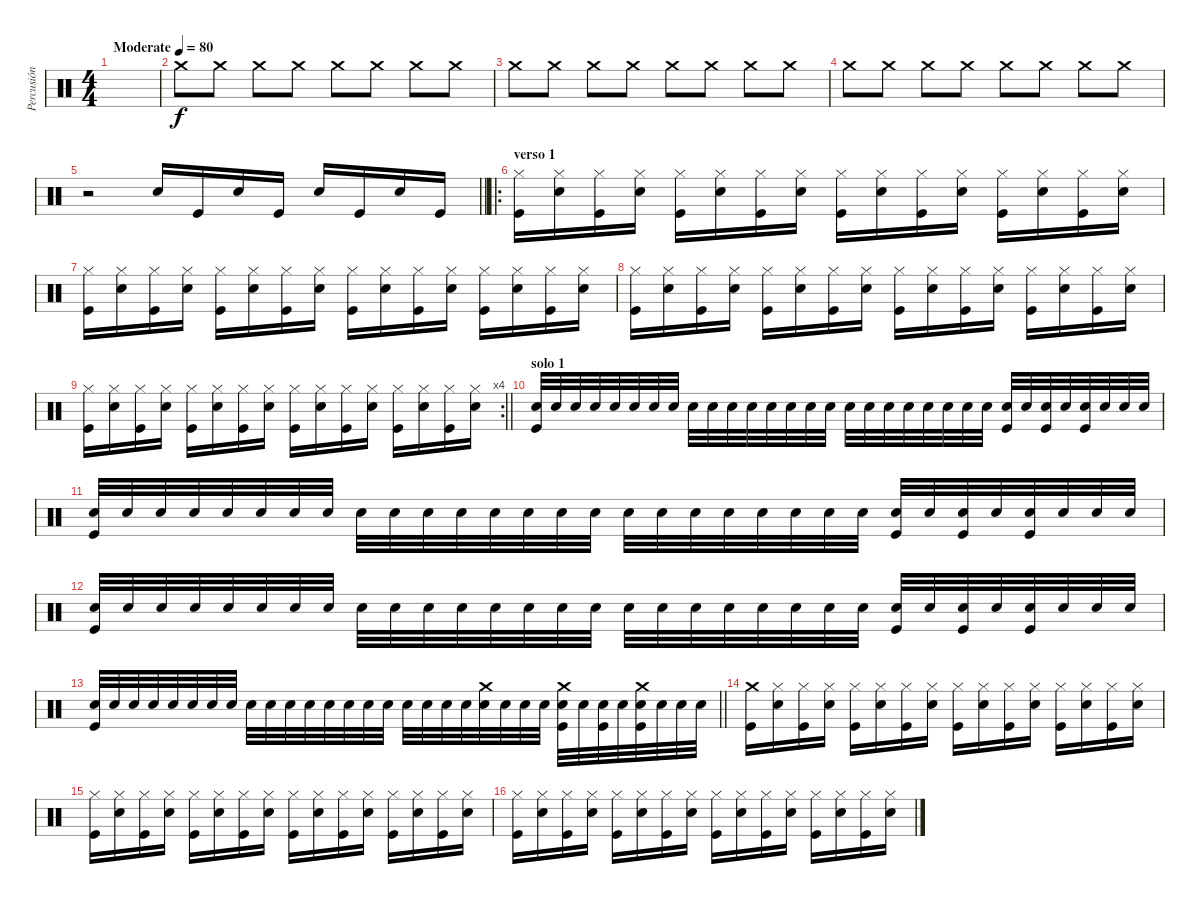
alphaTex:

\track ("Percusión" "Percusión") {instrument percussion}
\staff {score}
\articulation defaults
\ts (4 4)
\tempo (80 "Moderate")
\clef neutral
\ks c
|
"Crash medium (hit)".8 "Crash medium (hit)".8 "Crash medium (hit)".8 "Crash medium (hit)".8 "Crash medium (hit)".8 "Crash medium (hit)".8 "Crash medium (hit)".8 "Crash medium (hit)".8 |
"Crash medium (hit)".8 "Crash medium (hit)".8 "Crash medium (hit)".8 "Crash medium (hit)".8 "Crash medium (hit)".8 "Crash medium (hit)".8 "Crash medium (hit)".8 "Crash medium (hit)".8 |
"Crash medium (hit)".8 "Crash medium (hit)".8 "Crash medium (hit)".8 "Crash medium (hit)".8 "Crash medium (hit)".8 "Crash medium (hit)".8 "Crash medium (hit)".8 "Crash medium (hit)".8 |
\barLineRight lightlight
r.2 "Electric Snare (hit)".16 "Kick (hit)".16 "Electric Snare (hit)".16 "Kick (hit)".16 "Electric Snare (hit)".16 "Kick (hit)".16 "Electric Snare (hit)".16 "Kick (hit)".16 |
\ro
\section ("" "verso 1")
("Hi-Hat (closed)" "Kick (hit)").16 ("Hi-Hat (closed)" "Electric Snare (hit)").16 ("Hi-Hat (closed)" "Kick (hit)").16 ("Hi-Hat (closed)" "Electric Snare (hit)").16 ("Hi-Hat (closed)" "Kick (hit)").16 ("Hi-Hat (closed)" "Electric Snare (hit)").16 ("Hi-Hat (closed)" "Kick (hit)").16 ("Hi-Hat (closed)" "Electric Snare (hit)").16 ("Hi-Hat (closed)" "Kick (hit)").16 ("Hi-Hat (closed)" "Electric Snare (hit)").16 ("Hi-Hat (closed)" "Kick (hit)").16 ("Hi-Hat (closed)" "Electric Snare (hit)").16 ("Hi-Hat (closed)" "Kick (hit)").16 ("Hi-Hat (closed)" "Electric Snare (hit)").16 ("Hi-Hat (closed)" "Kick (hit)").16 ("Hi-Hat (closed)" "Electric Snare (hit)").16 |
("Hi-Hat (closed)" "Kick (hit)").16 ("Hi-Hat (closed)" "Electric Snare (hit)").16 ("Hi-Hat (closed)" "Kick (hit)").16 ("Hi-Hat (closed)" "Electric Snare (hit)").16 ("Hi-Hat (closed)" "Kick (hit)").16 ("Hi-Hat (closed)" "Electric Snare (hit)").16 ("Hi-Hat (closed)" "Kick (hit)").16 ("Hi-Hat (closed)" "Electric Snare (hit)").16 ("Hi-Hat (closed)" "Kick (hit)").16 ("Hi-Hat (closed)" "Electric Snare (hit)").16 ("Hi-Hat (closed)" "Kick (hit)").16 ("Hi-Hat (closed)" "Electric Snare (hit)").16 ("Hi-Hat (closed)" "Kick (hit)").16 ("Hi-Hat (closed)" "Electric Snare (hit)").16 ("Hi-Hat (closed)" "Kick (hit)").16 ("Hi-Hat (closed)" "Electric Snare (hit)").16 |
("Hi-Hat (closed)" "Kick (hit)").16 ("Hi-Hat (closed)" "Electric Snare (hit)").16 ("Hi-Hat (closed)" "Kick (hit)").16 ("Hi-Hat (closed)" "Electric Snare (hit)").16 ("Hi-Hat (closed)" "Kick (hit)").16 ("Hi-Hat (closed)" "Electric Snare (hit)").16 ("Hi-Hat (closed)" "Kick (hit)").16 ("Hi-Hat (closed)" "Electric Snare (hit)").16 ("Hi-Hat (closed)" "Kick (hit)").16 ("Hi-Hat (closed)" "Electric Snare (hit)").16 ("Hi-Hat (closed)" "Kick (hit)").16 ("Hi-Hat (closed)" "Electric Snare (hit)").16 ("Hi-Hat (closed)" "Kick (hit)").16 ("Hi-Hat (closed)" "Electric Snare (hit)").16 ("Hi-Hat (closed)" "Kick (hit)").16 ("Hi-Hat (closed)" "Electric Snare (hit)").16 |
\rc 4
\barLineRight lightlight
("Hi-Hat (closed)" "Kick (hit)").16 ("Hi-Hat (closed)" "Electric Snare (hit)").16 ("Hi-Hat (closed)" "Kick (hit)").16 ("Hi-Hat (closed)" "Electric Snare (hit)").16 ("Hi-Hat (closed)" "Kick (hit)").16 ("Hi-Hat (closed)" "Electric Snare (hit)").16 ("Hi-Hat (closed)" "Kick (hit)").16 ("Hi-Hat (closed)" "Electric Snare (hit)").16 ("Hi-Hat (closed)" "Kick (hit)").16 ("Hi-Hat (closed)" "Electric Snare (hit)").16 ("Hi-Hat (closed)" "Kick (hit)").16 ("Hi-Hat (closed)" "Electric Snare (hit)").16 ("Hi-Hat (closed)" "Kick (hit)").16 ("Hi-Hat (closed)" "Electric Snare (hit)").16 ("Hi-Hat (closed)" "Kick (hit)").16 ("Hi-Hat (closed)" "Electric Snare (hit)").16 |
\section ("" "solo 1")
("Electric Snare (hit)" "Kick (hit)").32 "Electric Snare (hit)".32 "Electric Snare (hit)".32 "Electric Snare (hit)".32 "Electric Snare (hit)".32 "Electric Snare (hit)".32 "Electric Snare (hit)".32 "Electric Snare (hit)".32 "Electric Snare (hit)".32 "Electric Snare (hit)".32 "Electric Snare (hit)".32 "Electric Snare (hit)".32 "Electric Snare (hit)".32 "Electric Snare (hit)".32 "Electric Snare (hit)".32 "Electric Snare (hit)".32 "Electric Snare (hit)".32 "Electric Snare (hit)".32 "Electric Snare (hit)".32 "Electric Snare (hit)".32 "Electric Snare (hit)".32 "Electric Snare (hit)".32 "Electric Snare (hit)".32 "Electric Snare (hit)".32 ("Electric Snare (hit)" "Kick (hit)").32 "Electric Snare (hit)".32 ("Electric Snare (hit)" "Kick (hit)").32 "Electric Snare (hit)".32 ("Electric Snare (hit)" "Kick (hit)").32 "Electric Snare (hit)".32 "Electric Snare (hit)".32 "Electric Snare (hit)".32 |
("Electric Snare (hit)" "Kick (hit)").32 "Electric Snare (hit)".32 "Electric Snare (hit)".32 "Electric Snare (hit)".32 "Electric Snare (hit)".32 "Electric Snare (hit)".32 "Electric Snare (hit)".32 "Electric Snare (hit)".32 "Electric Snare (hit)".32 "Electric Snare (hit)".32 "Electric Snare (hit)".32 "Electric Snare (hit)".32 "Electric Snare (hit)".32 "Electric Snare (hit)".32 "Electric Snare (hit)".32 "Electric Snare (hit)".32 "Electric Snare (hit)".32 "Electric Snare (hit)".32 "Electric Snare (hit)".32 "Electric Snare (hit)".32 "Electric Snare (hit)".32 "Electric Snare (hit)".32 "Electric Snare (hit)".32 "Electric Snare (hit)".32 ("Electric Snare (hit)" "Kick (hit)").32 "Electric Snare (hit)".32 ("Electric Snare (hit)" "Kick (hit)").32 "Electric Snare (hit)".32 ("Electric Snare (hit)" "Kick (hit)").32 "Electric Snare (hit)".32 "Electric Snare (hit)".32 "Electric Snare (hit)".32 |
("Electric Snare (hit)" "Kick (hit)").32 "Electric Snare (hit)".32 "Electric Snare (hit)".32 "Electric Snare (hit)".32 "Electric Snare (hit)".32 "Electric Snare (hit)".32 "Electric Snare (hit)".32 "Electric Snare (hit)".32 "Electric Snare (hit)".32 "Electric Snare (hit)".32 "Electric Snare (hit)".32 "Electric Snare (hit)".32 "Electric Snare (hit)".32 "Electric Snare (hit)".32 "Electric Snare (hit)".32 "Electric Snare (hit)".32 "Electric Snare (hit)".32 "Electric Snare (hit)".32 "Electric Snare (hit)".32 "Electric Snare (hit)".32 "Electric Snare (hit)".32 "Electric Snare (hit)".32 "Electric Snare (hit)".32 "Electric Snare (hit)".32 ("Electric Snare (hit)" "Kick (hit)").32 "Electric Snare (hit)".32 ("Electric Snare (hit)" "Kick (hit)").32 "Electric Snare (hit)".32 ("Electric Snare (hit)" "Kick (hit)").32 "Electric Snare (hit)".32 "Electric Snare (hit)".32 "Electric Snare (hit)".32 |
\barLineRight lightlight
("Electric Snare (hit)" "Kick (hit)").32 "Electric Snare (hit)".32 "Electric Snare (hit)".32 "Electric Snare (hit)".32 "Electric Snare (hit)".32 "Electric Snare (hit)".32 "Electric Snare (hit)".32 "Electric Snare (hit)".32 "Electric Snare (hit)".32 "Electric Snare (hit)".32 "Electric Snare (hit)".32 "Electric Snare (hit)".32 "Electric Snare (hit)".32 "Electric Snare (hit)".32 "Electric Snare (hit)".32 "Electric Snare (hit)".32 "Electric Snare (hit)".32 "Electric Snare (hit)".32 "Electric Snare (hit)".32 "Electric Snare (hit)".32 ("Crash medium (hit)" "Electric Snare (hit)").32 "Electric Snare (hit)".32 "Electric Snare (hit)".32 "Electric Snare (hit)".32 ("Crash medium (hit)" "Electric Snare (hit)" "Kick (hit)").32 "Electric Snare (hit)".32 ("Electric Snare (hit)" "Kick (hit)").32 "Electric Snare (hit)".32 ("Crash medium (hit)" "Electric Snare (hit)" "Kick (hit)").32 "Electric Snare (hit)".32 "Electric Snare (hit)".32 "Electric Snare (hit)".32 |
\section ("" "")
("Crash medium (hit)" "Kick (hit)").16 ("Hi-Hat (closed)" "Electric Snare (hit)").16 ("Hi-Hat (closed)" "Kick (hit)").16 ("Hi-Hat (closed)" "Electric Snare (hit)").16 ("Hi-Hat (closed)" "Kick (hit)").16 ("Hi-Hat (closed)" "Electric Snare (hit)").16 ("Hi-Hat (closed)" "Kick (hit)").16 ("Hi-Hat (closed)" "Electric Snare (hit)").16 ("Hi-Hat (closed)" "Kick (hit)").16 ("Hi-Hat (closed)" "Electric Snare (hit)").16 ("Hi-Hat (closed)" "Kick (hit)").16 ("Hi-Hat (closed)" "Electric Snare (hit)").16 ("Hi-Hat (closed)" "Kick (hit)").16 ("Hi-Hat (closed)" "Electric Snare (hit)").16 ("Hi-Hat (closed)" "Kick (hit)").16 ("Hi-Hat (closed)" "Electric Snare (hit)").16 |
("Hi-Hat (closed)" "Kick (hit)").16 ("Hi-Hat (closed)" "Electric Snare (hit)").16 ("Hi-Hat (closed)" "Kick (hit)").16 ("Hi-Hat (closed)" "Electric Snare (hit)").16 ("Hi-Hat (closed)" "Kick (hit)").16 ("Hi-Hat (closed)" "Electric Snare (hit)").16 ("Hi-Hat (closed)" "Kick (hit)").16 ("Hi-Hat (closed)" "Electric Snare (hit)").16 ("Hi-Hat (closed)" "Kick (hit)").16 ("Hi-Hat (closed)" "Electric Snare (hit)").16 ("Hi-Hat (closed)" "Kick (hit)").16 ("Hi-Hat (closed)" "Electric Snare (hit)").16 ("Hi-Hat (closed)" "Kick (hit)").16 ("Hi-Hat (closed)" "Electric Snare (hit)").16 ("Hi-Hat (closed)" "Kick (hit)").16 ("Hi-Hat (closed)" "Electric Snare (hit)").16 |
("Hi-Hat (closed)" "Kick (hit)").16 ("Hi-Hat (closed)" "Electric Snare (hit)").16 ("Hi-Hat (closed)" "Kick (hit)").16 ("Hi-Hat (closed)" "Electric Snare (hit)").16 ("Hi-Hat (closed)" "Kick (hit)").16 ("Hi-Hat (closed)" "Electric Snare (hit)").16 ("Hi-Hat (closed)" "Kick (hit)").16 ("Hi-Hat (closed)" "Electric Snare (hit)").16 ("Hi-Hat (closed)" "Kick (hit)").16 ("Hi-Hat (closed)" "Electric Snare (hit)").16 ("Hi-Hat (closed)" "Kick (hit)").16 ("Hi-Hat (closed)" "Electric Snare (hit)").16 ("Hi-Hat (closed)" "Kick (hit)").16 ("Hi-Hat (closed)" "Electric Snare (hit)").16 ("Hi-Hat (closed)" "Kick (hit)").16 ("Hi-Hat (closed)" "Electric Snare (hit)").16
